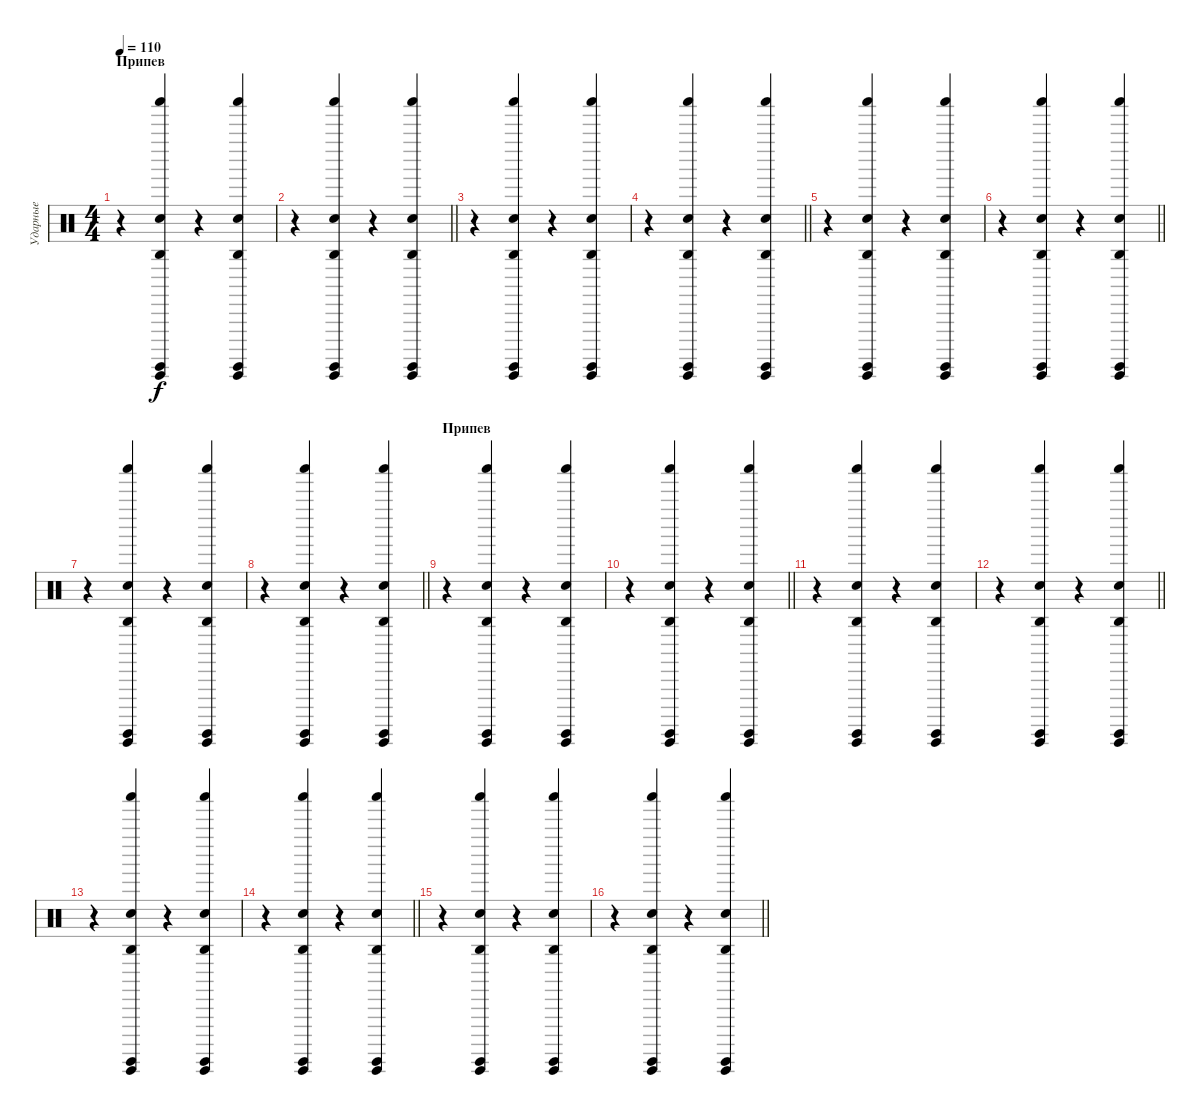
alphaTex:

\track ("Ударные" "Ударные") {instrument percussion}
\staff {score}
\articulation defaults
\ts (4 4)
\section ("" "Припев")
\tempo 110
\clef neutral
\ks c
r.4{dy f} ("Agogo high (hit)" "Hand Clap (hit)" "Guiro (hit)" "Shaker (hit)" "Surdo (hit)").4 r.4 ("Agogo high (hit)" "Hand Clap (hit)" "Guiro (hit)" "Shaker (hit)" "Surdo (hit)").4 |
\barLineRight lightlight
r.4 ("Agogo high (hit)" "Hand Clap (hit)" "Guiro (hit)" "Shaker (hit)" "Surdo (hit)").4 r.4 ("Agogo high (hit)" "Hand Clap (hit)" "Guiro (hit)" "Shaker (hit)" "Surdo (hit)").4 |
r.4 ("Agogo high (hit)" "Hand Clap (hit)" "Guiro (hit)" "Shaker (hit)" "Surdo (hit)").4 r.4 ("Agogo high (hit)" "Hand Clap (hit)" "Guiro (hit)" "Shaker (hit)" "Surdo (hit)").4 |
\barLineRight lightlight
r.4 ("Agogo high (hit)" "Hand Clap (hit)" "Guiro (hit)" "Shaker (hit)" "Surdo (hit)").4 r.4 ("Agogo high (hit)" "Hand Clap (hit)" "Guiro (hit)" "Shaker (hit)" "Surdo (hit)").4 |
r.4 ("Agogo high (hit)" "Hand Clap (hit)" "Guiro (hit)" "Shaker (hit)" "Surdo (hit)").4 r.4 ("Agogo high (hit)" "Hand Clap (hit)" "Guiro (hit)" "Shaker (hit)" "Surdo (hit)").4 |
\barLineRight lightlight
r.4 ("Agogo high (hit)" "Hand Clap (hit)" "Guiro (hit)" "Shaker (hit)" "Surdo (hit)").4 r.4 ("Agogo high (hit)" "Hand Clap (hit)" "Guiro (hit)" "Shaker (hit)" "Surdo (hit)").4 |
r.4 ("Agogo high (hit)" "Hand Clap (hit)" "Guiro (hit)" "Shaker (hit)" "Surdo (hit)").4 r.4 ("Agogo high (hit)" "Hand Clap (hit)" "Guiro (hit)" "Shaker (hit)" "Surdo (hit)").4 |
\barLineRight lightlight
r.4 ("Agogo high (hit)" "Hand Clap (hit)" "Guiro (hit)" "Shaker (hit)" "Surdo (hit)").4 r.4 ("Agogo high (hit)" "Hand Clap (hit)" "Guiro (hit)" "Shaker (hit)" "Surdo (hit)").4 |
\section ("" "Припев")
r.4 ("Agogo high (hit)" "Hand Clap (hit)" "Guiro (hit)" "Shaker (hit)" "Surdo (hit)").4 r.4 ("Agogo high (hit)" "Hand Clap (hit)" "Guiro (hit)" "Shaker (hit)" "Surdo (hit)").4 |
\barLineRight lightlight
r.4 ("Agogo high (hit)" "Hand Clap (hit)" "Guiro (hit)" "Shaker (hit)" "Surdo (hit)").4 r.4 ("Agogo high (hit)" "Hand Clap (hit)" "Guiro (hit)" "Shaker (hit)" "Surdo (hit)").4 |
r.4 ("Agogo high (hit)" "Hand Clap (hit)" "Guiro (hit)" "Shaker (hit)" "Surdo (hit)").4 r.4 ("Agogo high (hit)" "Hand Clap (hit)" "Guiro (hit)" "Shaker (hit)" "Surdo (hit)").4 |
\barLineRight lightlight
r.4 ("Agogo high (hit)" "Hand Clap (hit)" "Guiro (hit)" "Shaker (hit)" "Surdo (hit)").4 r.4 ("Agogo high (hit)" "Hand Clap (hit)" "Guiro (hit)" "Shaker (hit)" "Surdo (hit)").4 |
r.4 ("Agogo high (hit)" "Hand Clap (hit)" "Guiro (hit)" "Shaker (hit)" "Surdo (hit)").4 r.4 ("Agogo high (hit)" "Hand Clap (hit)" "Guiro (hit)" "Shaker (hit)" "Surdo (hit)").4 |
\barLineRight lightlight
r.4 ("Agogo high (hit)" "Hand Clap (hit)" "Guiro (hit)" "Shaker (hit)" "Surdo (hit)").4 r.4 ("Agogo high (hit)" "Hand Clap (hit)" "Guiro (hit)" "Shaker (hit)" "Surdo (hit)").4 |
r.4 ("Agogo high (hit)" "Hand Clap (hit)" "Guiro (hit)" "Shaker (hit)" "Surdo (hit)").4 r.4 ("Agogo high (hit)" "Hand Clap (hit)" "Guiro (hit)" "Shaker (hit)" "Surdo (hit)").4 |
\barLineRight lightlight
r.4 ("Agogo high (hit)" "Hand Clap (hit)" "Guiro (hit)" "Shaker (hit)" "Surdo (hit)").4 r.4 ("Agogo high (hit)" "Hand Clap (hit)" "Guiro (hit)" "Shaker (hit)" "Surdo (hit)").4
